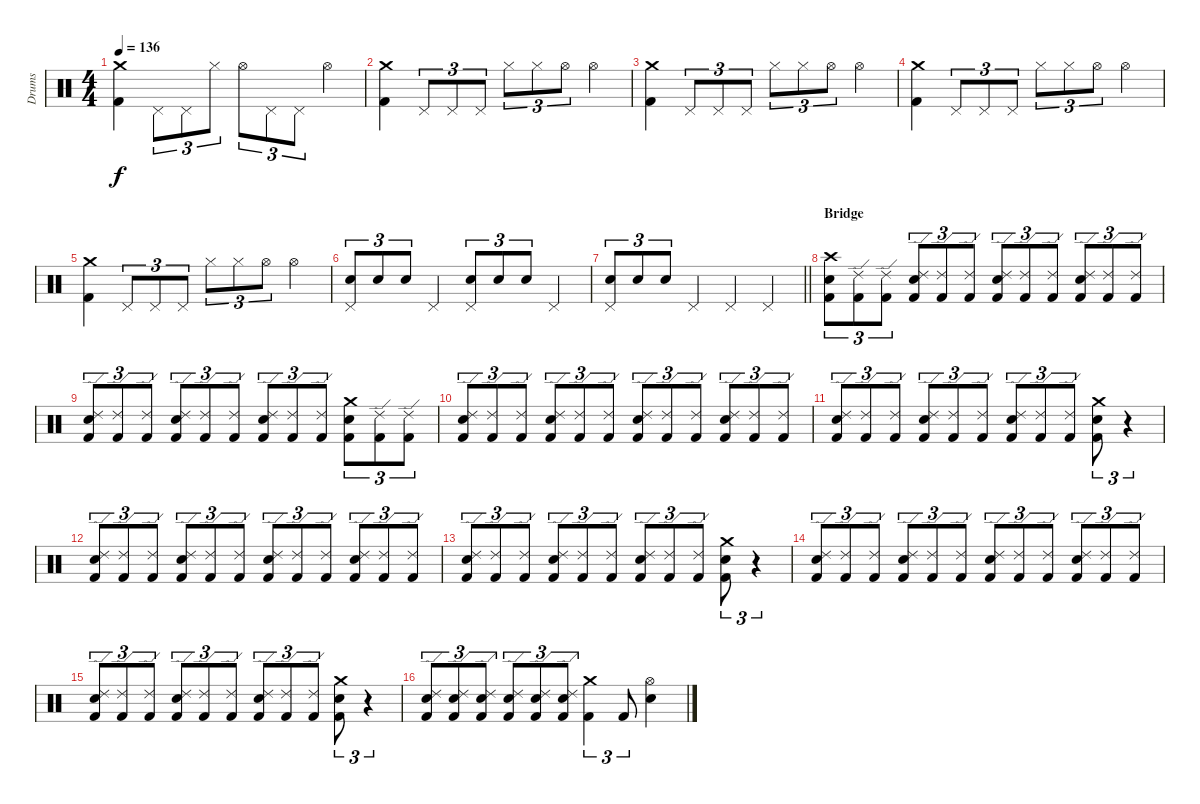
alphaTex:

\track ("Drums" "Drums") {instrument percussion}
\staff {score}
\articulation defaults
\ts (4 4)
\tempo 136
\clef neutral
\ks c
("Crash medium (hit)" "Kick (hit) 2").4{dy f} "Pedal Hi-Hat (hit)".8{tu (3 2)} "Pedal Hi-Hat (hit)".8{tu (3 2)} "Hi-Hat (closed)".8{tu (3 2)} "Hi-Hat (open)".8{tu (3 2)} "Pedal Hi-Hat (hit)".8{tu (3 2)} "Pedal Hi-Hat (hit)".8{tu (3 2)} "Hi-Hat (open)".4 |
("Crash medium (hit)" "Kick (hit) 2").4 "Pedal Hi-Hat (hit)".8{tu (3 2)} "Pedal Hi-Hat (hit)".8{tu (3 2)} "Pedal Hi-Hat (hit)".8{tu (3 2)} "Hi-Hat (closed)".8{tu (3 2)} "Hi-Hat (closed)".8{tu (3 2)} "Hi-Hat (open)".8{tu (3 2)} "Hi-Hat (open)".4 |
("Crash medium (hit)" "Kick (hit) 2").4 "Pedal Hi-Hat (hit)".8{tu (3 2)} "Pedal Hi-Hat (hit)".8{tu (3 2)} "Pedal Hi-Hat (hit)".8{tu (3 2)} "Hi-Hat (closed)".8{tu (3 2)} "Hi-Hat (closed)".8{tu (3 2)} "Hi-Hat (open)".8{tu (3 2)} "Hi-Hat (open)".4 |
("Crash medium (hit)" "Kick (hit) 2").4 "Pedal Hi-Hat (hit)".8{tu (3 2)} "Pedal Hi-Hat (hit)".8{tu (3 2)} "Pedal Hi-Hat (hit)".8{tu (3 2)} "Hi-Hat (closed)".8{tu (3 2)} "Hi-Hat (closed)".8{tu (3 2)} "Hi-Hat (open)".8{tu (3 2)} "Hi-Hat (open)".4 |
("Crash medium (hit)" "Kick (hit) 2").4 "Pedal Hi-Hat (hit)".8{tu (3 2)} "Pedal Hi-Hat (hit)".8{tu (3 2)} "Pedal Hi-Hat (hit)".8{tu (3 2)} "Hi-Hat (closed)".8{tu (3 2)} "Hi-Hat (closed)".8{tu (3 2)} "Hi-Hat (open)".8{tu (3 2)} "Hi-Hat (open)".4 |
("Snare (hit) 2" "Pedal Hi-Hat (hit)").8{tu (3 2)} "Snare (hit) 2".8{tu (3 2)} "Snare (hit) 2".8{tu (3 2)} "Pedal Hi-Hat (hit)".4 ("Snare (hit) 2" "Pedal Hi-Hat (hit)").8{tu (3 2)} "Snare (hit) 2".8{tu (3 2)} "Snare (hit) 2".8{tu (3 2)} "Pedal Hi-Hat (hit)".4 |
\barLineRight lightlight
("Snare (hit) 2" "Pedal Hi-Hat (hit)").8{tu (3 2)} "Snare (hit) 2".8{tu (3 2)} "Snare (hit) 2".8{tu (3 2)} "Pedal Hi-Hat (hit)".4 "Pedal Hi-Hat (hit)".4 "Pedal Hi-Hat (hit)".4 |
\section ("" "Bridge")
("Crash high (hit)" "Snare (hit) 2" "Kick (hit) 2").8{tu (3 2)} ("Ride (edge) 2" "Kick (hit) 2").8{tu (3 2)} ("Ride (edge) 2" "Kick (hit) 2").8{tu (3 2)} ("Ride (edge) 2" "Snare (hit) 2" "Kick (hit) 2").8{tu (3 2)} ("Ride (edge) 2" "Kick (hit) 2").8{tu (3 2)} ("Ride (edge) 2" "Kick (hit) 2").8{tu (3 2)} ("Ride (edge) 2" "Snare (hit) 2" "Kick (hit) 2").8{tu (3 2)} ("Ride (edge) 2" "Kick (hit) 2").8{tu (3 2)} ("Ride (edge) 2" "Kick (hit) 2").8{tu (3 2)} ("Ride (edge) 2" "Snare (hit) 2" "Kick (hit) 2").8{tu (3 2)} ("Ride (edge) 2" "Kick (hit) 2").8{tu (3 2)} ("Ride (edge) 2" "Kick (hit) 2").8{tu (3 2)} |
("Ride (edge) 2" "Snare (hit) 2" "Kick (hit) 2").8{tu (3 2)} ("Ride (edge) 2" "Kick (hit) 2").8{tu (3 2)} ("Ride (edge) 2" "Kick (hit) 2").8{tu (3 2)} ("Ride (edge) 2" "Snare (hit) 2" "Kick (hit) 2").8{tu (3 2)} ("Ride (edge) 2" "Kick (hit) 2").8{tu (3 2)} ("Ride (edge) 2" "Kick (hit) 2").8{tu (3 2)} ("Ride (edge) 2" "Snare (hit) 2" "Kick (hit) 2").8{tu (3 2)} ("Ride (edge) 2" "Kick (hit) 2").8{tu (3 2)} ("Ride (edge) 2" "Kick (hit) 2").8{tu (3 2)} ("Crash medium (hit)" "Snare (hit) 2" "Kick (hit) 2").8{tu (3 2)} ("Ride (edge) 2" "Kick (hit) 2").8{tu (3 2)} ("Ride (edge) 2" "Kick (hit) 2").8{tu (3 2)} |
("Ride (edge) 2" "Snare (hit) 2" "Kick (hit) 2").8{tu (3 2)} ("Ride (edge) 2" "Kick (hit) 2").8{tu (3 2)} ("Ride (edge) 2" "Kick (hit) 2").8{tu (3 2)} ("Ride (edge) 2" "Snare (hit) 2" "Kick (hit) 2").8{tu (3 2)} ("Ride (edge) 2" "Kick (hit) 2").8{tu (3 2)} ("Ride (edge) 2" "Kick (hit) 2").8{tu (3 2)} ("Ride (edge) 2" "Snare (hit) 2" "Kick (hit) 2").8{tu (3 2)} ("Ride (edge) 2" "Kick (hit) 2").8{tu (3 2)} ("Ride (edge) 2" "Kick (hit) 2").8{tu (3 2)} ("Ride (edge) 2" "Snare (hit) 2" "Kick (hit) 2").8{tu (3 2)} ("Ride (edge) 2" "Kick (hit) 2").8{tu (3 2)} ("Ride (edge) 2" "Kick (hit) 2").8{tu (3 2)} |
("Ride (edge) 2" "Snare (hit) 2" "Kick (hit) 2").8{tu (3 2)} ("Ride (edge) 2" "Kick (hit) 2").8{tu (3 2)} ("Ride (edge) 2" "Kick (hit) 2").8{tu (3 2)} ("Ride (edge) 2" "Snare (hit) 2" "Kick (hit) 2").8{tu (3 2)} ("Ride (edge) 2" "Kick (hit) 2").8{tu (3 2)} ("Ride (edge) 2" "Kick (hit) 2").8{tu (3 2)} ("Ride (edge) 2" "Snare (hit) 2" "Kick (hit) 2").8{tu (3 2)} ("Ride (edge) 2" "Kick (hit) 2").8{tu (3 2)} ("Ride (edge) 2" "Kick (hit) 2").8{tu (3 2)} ("Crash medium (hit)" "Snare (hit) 2" "Kick (hit) 2").8{tu (3 2)} r.4{tu (3 2)} |
("Ride (edge) 2" "Snare (hit) 2" "Kick (hit) 2").8{tu (3 2)} ("Ride (edge) 2" "Kick (hit) 2").8{tu (3 2)} ("Ride (edge) 2" "Kick (hit) 2").8{tu (3 2)} ("Ride (edge) 2" "Snare (hit) 2" "Kick (hit) 2").8{tu (3 2)} ("Ride (edge) 2" "Kick (hit) 2").8{tu (3 2)} ("Ride (edge) 2" "Kick (hit) 2").8{tu (3 2)} ("Ride (edge) 2" "Snare (hit) 2" "Kick (hit) 2").8{tu (3 2)} ("Ride (edge) 2" "Kick (hit) 2").8{tu (3 2)} ("Ride (edge) 2" "Kick (hit) 2").8{tu (3 2)} ("Ride (edge) 2" "Snare (hit) 2" "Kick (hit) 2").8{tu (3 2)} ("Ride (edge) 2" "Kick (hit) 2").8{tu (3 2)} ("Ride (edge) 2" "Kick (hit) 2").8{tu (3 2)} |
("Ride (edge) 2" "Snare (hit) 2" "Kick (hit) 2").8{tu (3 2)} ("Ride (edge) 2" "Kick (hit) 2").8{tu (3 2)} ("Ride (edge) 2" "Kick (hit) 2").8{tu (3 2)} ("Ride (edge) 2" "Snare (hit) 2" "Kick (hit) 2").8{tu (3 2)} ("Ride (edge) 2" "Kick (hit) 2").8{tu (3 2)} ("Ride (edge) 2" "Kick (hit) 2").8{tu (3 2)} ("Ride (edge) 2" "Snare (hit) 2" "Kick (hit) 2").8{tu (3 2)} ("Ride (edge) 2" "Kick (hit) 2").8{tu (3 2)} ("Ride (edge) 2" "Kick (hit) 2").8{tu (3 2)} ("Crash medium (hit)" "Snare (hit) 2" "Kick (hit) 2").8{tu (3 2)} r.4{tu (3 2)} |
("Ride (edge) 2" "Snare (hit) 2" "Kick (hit) 2").8{tu (3 2)} ("Ride (edge) 2" "Kick (hit) 2").8{tu (3 2)} ("Ride (edge) 2" "Kick (hit) 2").8{tu (3 2)} ("Ride (edge) 2" "Snare (hit) 2" "Kick (hit) 2").8{tu (3 2)} ("Ride (edge) 2" "Kick (hit) 2").8{tu (3 2)} ("Ride (edge) 2" "Kick (hit) 2").8{tu (3 2)} ("Ride (edge) 2" "Snare (hit) 2" "Kick (hit) 2").8{tu (3 2)} ("Ride (edge) 2" "Kick (hit) 2").8{tu (3 2)} ("Ride (edge) 2" "Kick (hit) 2").8{tu (3 2)} ("Ride (edge) 2" "Snare (hit) 2" "Kick (hit) 2").8{tu (3 2)} ("Ride (edge) 2" "Kick (hit) 2").8{tu (3 2)} ("Ride (edge) 2" "Kick (hit) 2").8{tu (3 2)} |
("Ride (edge) 2" "Snare (hit) 2" "Kick (hit) 2").8{tu (3 2)} ("Ride (edge) 2" "Kick (hit) 2").8{tu (3 2)} ("Ride (edge) 2" "Kick (hit) 2").8{tu (3 2)} ("Ride (edge) 2" "Snare (hit) 2" "Kick (hit) 2").8{tu (3 2)} ("Ride (edge) 2" "Kick (hit) 2").8{tu (3 2)} ("Ride (edge) 2" "Kick (hit) 2").8{tu (3 2)} ("Ride (edge) 2" "Snare (hit) 2" "Kick (hit) 2").8{tu (3 2)} ("Ride (edge) 2" "Kick (hit) 2").8{tu (3 2)} ("Ride (edge) 2" "Kick (hit) 2").8{tu (3 2)} ("Crash medium (hit)" "Snare (hit) 2" "Kick (hit) 2").8{tu (3 2)} r.4{tu (3 2)} |
("Ride (edge) 2" "Snare (hit) 2" "Kick (hit) 2").8{tu (3 2)} ("Ride (edge) 2" "Snare (hit) 2" "Kick (hit) 2").8{tu (3 2)} ("Ride (edge) 2" "Snare (hit) 2" "Kick (hit) 2").8{tu (3 2)} ("Ride (edge) 2" "Snare (hit) 2" "Kick (hit) 2").8{tu (3 2)} ("Ride (edge) 2" "Snare (hit) 2" "Kick (hit) 2").8{tu (3 2)} ("Ride (edge) 2" "Snare (hit) 2" "Kick (hit) 2").8{tu (3 2)} ("Crash medium (hit)" "Kick (hit) 2").4{tu (3 2)} "Kick (hit) 2".8{tu (3 2)} ("Hi-Hat (open)" "Snare (hit) 2").4
